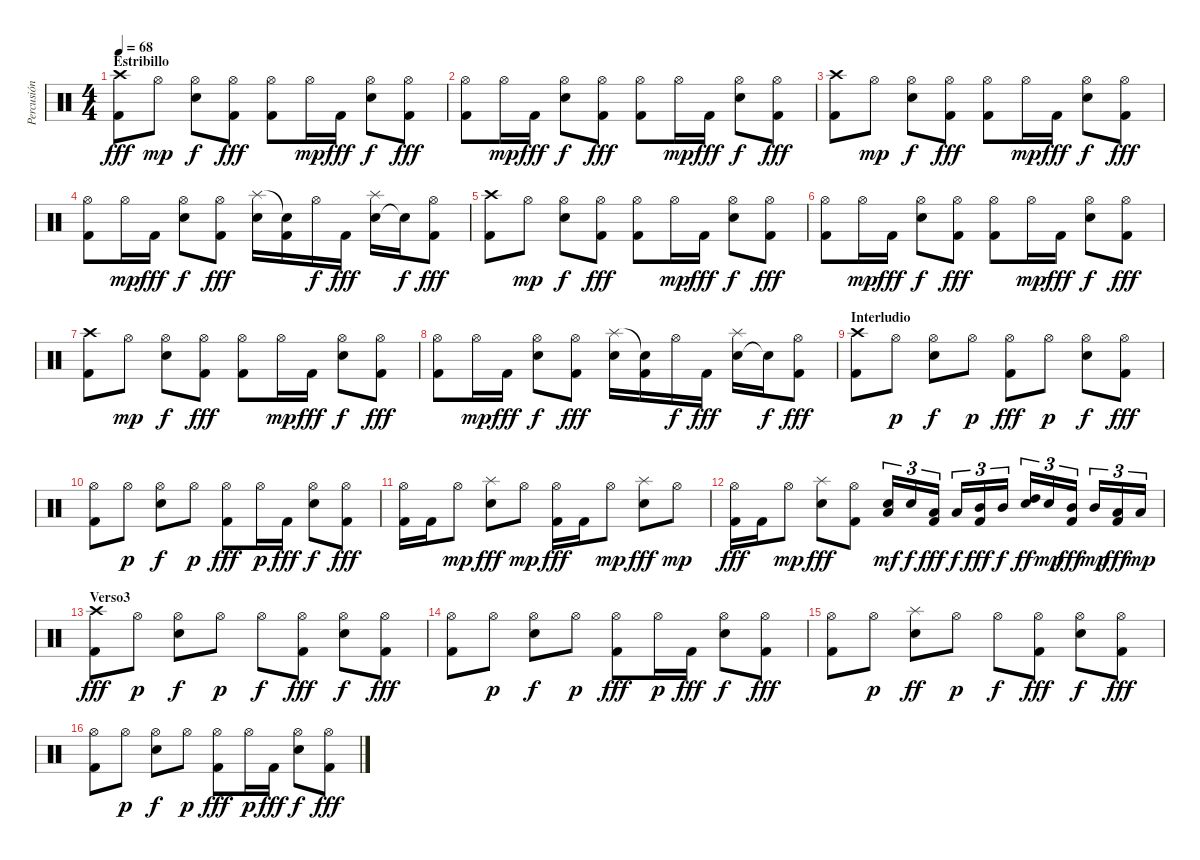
\track ("Percusión" "Percusión") {instrument percussion}
\staff {score}
\articulation defaults
\ts (4 4)
\section ("" "Estribillo")
\tempo 68
\clef neutral
\ks c
("Kick (hit) 2" "Crash high (hit)").8{dy fff} "Hi-Hat (open)".8{dy mp} ("Hi-Hat (open)" "Snare (hit) 2").8{dy f} ("Hi-Hat (open)" "Kick (hit) 2").8{dy fff} ("Hi-Hat (open)" "Kick (hit) 2").8 "Hi-Hat (open)".16{dy mp} "Kick (hit) 2".16{dy fff} ("Hi-Hat (open)" "Snare (hit) 2").8{dy f} ("Hi-Hat (open)" "Kick (hit) 2").8{dy fff} |
("Hi-Hat (open)" "Kick (hit) 2").8 "Hi-Hat (open)".16{dy mp} "Kick (hit) 2".16{dy fff} ("Hi-Hat (open)" "Snare (hit) 2").8{dy f} ("Hi-Hat (open)" "Kick (hit) 2").8{dy fff} ("Hi-Hat (open)" "Kick (hit) 2").8 "Hi-Hat (open)".16{dy mp} "Kick (hit) 2".16{dy fff} ("Hi-Hat (open)" "Snare (hit) 2").8{dy f} ("Hi-Hat (open)" "Kick (hit) 2").8{dy fff} |
("Kick (hit) 2" "Crash high (hit)").8 "Hi-Hat (open)".8{dy mp} ("Hi-Hat (open)" "Snare (hit) 2").8{dy f} ("Hi-Hat (open)" "Kick (hit) 2").8{dy fff} ("Hi-Hat (open)" "Kick (hit) 2").8 "Hi-Hat (open)".16{dy mp} "Kick (hit) 2".16{dy fff} ("Hi-Hat (open)" "Snare (hit) 2").8{dy f} ("Hi-Hat (open)" "Kick (hit) 2").8{dy fff} |
("Hi-Hat (open)" "Kick (hit) 2").8 "Hi-Hat (open)".16{dy mp} "Kick (hit) 2".16{dy fff} ("Hi-Hat (open)" "Snare (hit) 2").8{dy f} ("Hi-Hat (open)" "Kick (hit) 2").8{dy fff} ("Snare (hit) 2" "Splash (hit)").16 ("Kick (hit) 2" "Snare (hit)"{t}).16 "Hi-Hat (open)".16{dy f} "Kick (hit) 2".16{dy fff} ("Snare (hit) 2" "Splash (hit)").16 "Snare (hit)"{t}.16{dy f} ("Hi-Hat (open)" "Kick (hit) 2").8{dy fff} |
("Kick (hit) 2" "Crash high (hit)").8 "Hi-Hat (open)".8{dy mp} ("Hi-Hat (open)" "Snare (hit) 2").8{dy f} ("Hi-Hat (open)" "Kick (hit) 2").8{dy fff} ("Hi-Hat (open)" "Kick (hit) 2").8 "Hi-Hat (open)".16{dy mp} "Kick (hit) 2".16{dy fff} ("Hi-Hat (open)" "Snare (hit) 2").8{dy f} ("Hi-Hat (open)" "Kick (hit) 2").8{dy fff} |
("Hi-Hat (open)" "Kick (hit) 2").8 "Hi-Hat (open)".16{dy mp} "Kick (hit) 2".16{dy fff} ("Hi-Hat (open)" "Snare (hit) 2").8{dy f} ("Hi-Hat (open)" "Kick (hit) 2").8{dy fff} ("Hi-Hat (open)" "Kick (hit) 2").8 "Hi-Hat (open)".16{dy mp} "Kick (hit) 2".16{dy fff} ("Hi-Hat (open)" "Snare (hit) 2").8{dy f} ("Hi-Hat (open)" "Kick (hit) 2").8{dy fff} |
("Kick (hit) 2" "Crash high (hit)").8 "Hi-Hat (open)".8{dy mp} ("Hi-Hat (open)" "Snare (hit) 2").8{dy f} ("Hi-Hat (open)" "Kick (hit) 2").8{dy fff} ("Hi-Hat (open)" "Kick (hit) 2").8 "Hi-Hat (open)".16{dy mp} "Kick (hit) 2".16{dy fff} ("Hi-Hat (open)" "Snare (hit) 2").8{dy f} ("Hi-Hat (open)" "Kick (hit) 2").8{dy fff} |
("Hi-Hat (open)" "Kick (hit) 2").8 "Hi-Hat (open)".16{dy mp} "Kick (hit) 2".16{dy fff} ("Hi-Hat (open)" "Snare (hit) 2").8{dy f} ("Hi-Hat (open)" "Kick (hit) 2").8{dy fff} ("Snare (hit) 2" "Splash (hit)").16 ("Kick (hit) 2" "Snare (hit)"{t}).16 "Hi-Hat (open)".16{dy f} "Kick (hit) 2".16{dy fff} ("Snare (hit) 2" "Splash (hit)").16 "Snare (hit)"{t}.16{dy f} ("Hi-Hat (open)" "Kick (hit) 2").8{dy fff} |
\section ("" "Interludio")
("Kick (hit) 2" "Crash high (hit)").8 "Hi-Hat (open)".8{dy p} ("Hi-Hat (open)" "Snare (hit) 2").8{dy f} "Hi-Hat (open)".8{dy p} ("Hi-Hat (open)" "Kick (hit) 2").8{dy fff} "Hi-Hat (open)".8{dy p} ("Hi-Hat (open)" "Snare (hit) 2").8{dy f} ("Hi-Hat (open)" "Kick (hit) 2").8{dy fff} |
("Hi-Hat (open)" "Kick (hit) 2").8 "Hi-Hat (open)".8{dy p} ("Hi-Hat (open)" "Snare (hit) 2").8{dy f} "Hi-Hat (open)".8{dy p} ("Hi-Hat (open)" "Kick (hit) 2").8{dy fff} "Hi-Hat (open)".16{dy p} "Kick (hit) 2".16{dy fff} ("Hi-Hat (open)" "Snare (hit) 2").8{dy f} ("Hi-Hat (open)" "Kick (hit) 2").8{dy fff} |
("Hi-Hat (open)" "Kick (hit) 2").16 "Kick (hit) 2".16 "Hi-Hat (open)".8{dy mp} ("Snare (hit) 2" "Splash (hit)").8{dy fff} "Hi-Hat (open)".8{dy mp} ("Hi-Hat (open)" "Kick (hit) 2").16{dy fff} "Kick (hit) 2".16 "Hi-Hat (open)".8{dy mp} ("Snare (hit) 2" "Splash (hit)").8{dy fff} "Hi-Hat (open)".8{dy mp} |
("Hi-Hat (open)" "Kick (hit) 2").16{dy fff} "Kick (hit) 2".16 "Hi-Hat (open)".8{dy mp} ("Snare (hit) 2" "Splash (hit)").8{dy fff} ("Hi-Hat (open)" "Kick (hit) 2").8 ("Snare (hit) 2" "Low Tom (hit)").16{tu (3 2) dy mf} "Snare (hit) 2".16{tu (3 2) dy f} ("Kick (hit) 2" "Low Tom (hit)").16{tu (3 2) dy fff} "Low Tom (hit)".16{tu (3 2) dy f} ("Kick (hit) 2" "Mid Tom (hit)").16{tu (3 2) dy fff} "Mid Tom (hit)".16{tu (3 2) dy f} ("Snare (hit) 2" "High Tom (hit)").16{tu (3 2) dy ff} "Snare (hit) 2".16{tu (3 2) dy mp} ("Kick (hit) 2" "Mid Tom (hit)").16{tu (3 2) dy fff} "Mid Tom (hit)".16{tu (3 2) dy mp} ("Kick (hit) 2" "Low Tom (hit)").16{tu (3 2) dy fff} "Low Tom (hit)".16{tu (3 2) dy mp} |
\section ("" "Verso3")
("Kick (hit) 2" "Crash high (hit)").8{dy fff} "Hi-Hat (open)".8{dy p} ("Hi-Hat (open)" "Snare (hit) 2").8{dy f} "Hi-Hat (open)".8{dy p} "Hi-Hat (open)".8{dy f} ("Hi-Hat (open)" "Kick (hit) 2").8{dy fff} ("Hi-Hat (open)" "Snare (hit) 2").8{dy f} ("Hi-Hat (open)" "Kick (hit) 2").8{dy fff} |
("Hi-Hat (open)" "Kick (hit) 2").8 "Hi-Hat (open)".8{dy p} ("Hi-Hat (open)" "Snare (hit) 2").8{dy f} "Hi-Hat (open)".8{dy p} ("Hi-Hat (open)" "Kick (hit) 2").8{dy fff} "Hi-Hat (open)".16{dy p} "Kick (hit) 2".16{dy fff} ("Hi-Hat (open)" "Snare (hit) 2").8{dy f} ("Hi-Hat (open)" "Kick (hit) 2").8{dy fff} |
("Hi-Hat (open)" "Kick (hit) 2").8 "Hi-Hat (open)".8{dy p} ("Snare (hit) 2" "Splash (hit)").8{dy ff} "Hi-Hat (open)".8{dy p} "Hi-Hat (open)".8{dy f} ("Hi-Hat (open)" "Kick (hit) 2").8{dy fff} ("Hi-Hat (open)" "Snare (hit) 2").8{dy f} ("Hi-Hat (open)" "Kick (hit) 2").8{dy fff} |
("Hi-Hat (open)" "Kick (hit) 2").8 "Hi-Hat (open)".8{dy p} ("Hi-Hat (open)" "Snare (hit) 2").8{dy f} "Hi-Hat (open)".8{dy p} ("Hi-Hat (open)" "Kick (hit) 2").8{dy fff} "Hi-Hat (open)".16{dy p} "Kick (hit) 2".16{dy fff} ("Hi-Hat (open)" "Snare (hit) 2").8{dy f} ("Hi-Hat (open)" "Kick (hit) 2").8{dy fff}
